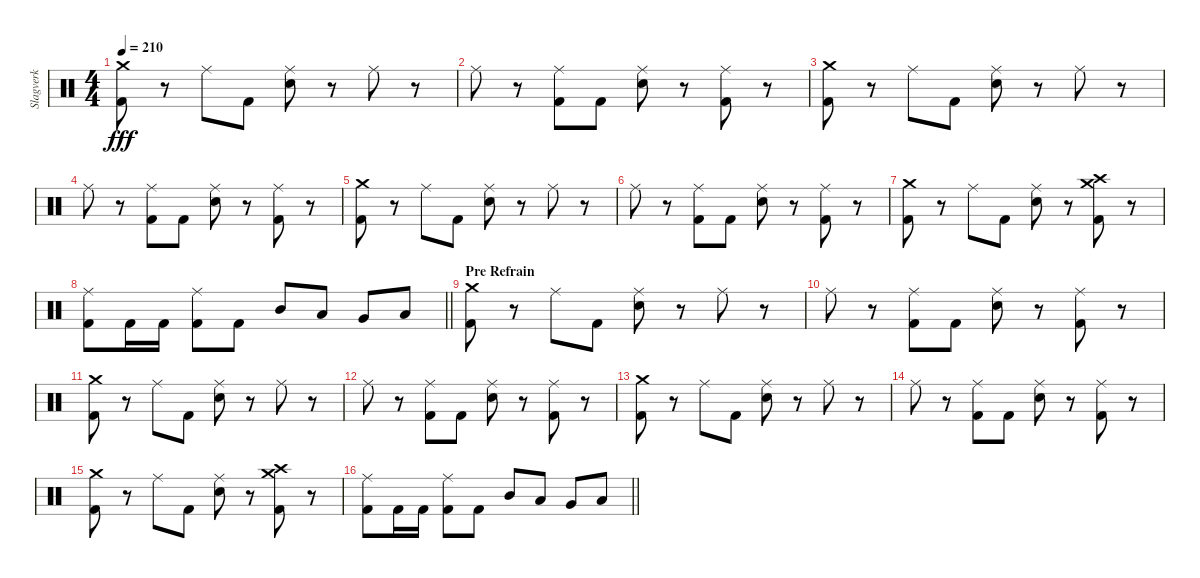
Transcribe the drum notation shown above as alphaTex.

\track ("Slagverk" "Slagverk") {instrument percussion}
\staff {score}
\articulation defaults
\ts (4 4)
\tempo 210
\clef neutral
\ks c
("Crash medium (hit)" "Kick (hit) 2").8{dy fff} r.8 "Ride (middle)".8 "Kick (hit) 2".8 ("Ride (middle)" "Electric Snare (hit)").8 r.8 "Ride (middle)".8 r.8 |
"Ride (middle)".8 r.8 ("Ride (middle)" "Kick (hit) 2").8 "Kick (hit) 2".8 ("Ride (middle)" "Electric Snare (hit)").8 r.8 ("Ride (middle)" "Kick (hit) 2").8 r.8 |
("Crash medium (hit)" "Kick (hit) 2").8 r.8 "Ride (middle)".8 "Kick (hit) 2".8 ("Ride (middle)" "Electric Snare (hit)").8 r.8 "Ride (middle)".8 r.8 |
"Ride (middle)".8 r.8 ("Ride (middle)" "Kick (hit) 2").8 "Kick (hit) 2".8 ("Ride (middle)" "Electric Snare (hit)").8 r.8 ("Ride (middle)" "Kick (hit) 2").8 r.8 |
("Crash medium (hit)" "Kick (hit) 2").8 r.8 "Ride (middle)".8 "Kick (hit) 2".8 ("Ride (middle)" "Electric Snare (hit)").8 r.8 "Ride (middle)".8 r.8 |
"Ride (middle)".8 r.8 ("Ride (middle)" "Kick (hit) 2").8 "Kick (hit) 2".8 ("Ride (middle)" "Electric Snare (hit)").8 r.8 ("Ride (middle)" "Kick (hit) 2").8 r.8 |
("Crash medium (hit)" "Kick (hit) 2").8 r.8 "Ride (middle)".8 "Kick (hit) 2".8 ("Ride (middle)" "Electric Snare (hit)").8 r.8 ("Crash high (hit)" "Crash medium (hit)" "Kick (hit) 2").8 r.8 |
\barLineRight lightlight
("Ride (middle)" "Kick (hit) 2").8 "Kick (hit) 2".16 "Kick (hit) 2".16 ("Ride (middle)" "Kick (hit) 2").8 "Kick (hit) 2".8 "Mid Tom (hit)".8 "Low Tom (hit)".8 "Very Low Tom (hit)".8 "Low Floor Tom (hit)".8 |
\section ("" "Pre Refrain")
("Crash medium (hit)" "Kick (hit) 2").8 r.8 "Ride (middle)".8 "Kick (hit) 2".8 ("Ride (middle)" "Electric Snare (hit)").8 r.8 "Ride (middle)".8 r.8 |
"Ride (middle)".8 r.8 ("Ride (middle)" "Kick (hit) 2").8 "Kick (hit) 2".8 ("Ride (middle)" "Electric Snare (hit)").8 r.8 ("Ride (middle)" "Kick (hit) 2").8 r.8 |
("Crash medium (hit)" "Kick (hit) 2").8 r.8 "Ride (middle)".8 "Kick (hit) 2".8 ("Ride (middle)" "Electric Snare (hit)").8 r.8 "Ride (middle)".8 r.8 |
"Ride (middle)".8 r.8 ("Ride (middle)" "Kick (hit) 2").8 "Kick (hit) 2".8 ("Ride (middle)" "Electric Snare (hit)").8 r.8 ("Ride (middle)" "Kick (hit) 2").8 r.8 |
("Crash medium (hit)" "Kick (hit) 2").8 r.8 "Ride (middle)".8 "Kick (hit) 2".8 ("Ride (middle)" "Electric Snare (hit)").8 r.8 "Ride (middle)".8 r.8 |
"Ride (middle)".8 r.8 ("Ride (middle)" "Kick (hit) 2").8 "Kick (hit) 2".8 ("Ride (middle)" "Electric Snare (hit)").8 r.8 ("Ride (middle)" "Kick (hit) 2").8 r.8 |
("Crash medium (hit)" "Kick (hit) 2").8 r.8 "Ride (middle)".8 "Kick (hit) 2".8 ("Ride (middle)" "Electric Snare (hit)").8 r.8 ("Crash high (hit)" "Crash medium (hit)" "Kick (hit) 2").8 r.8 |
\barLineRight lightlight
("Ride (middle)" "Kick (hit) 2").8 "Kick (hit) 2".16 "Kick (hit) 2".16 ("Ride (middle)" "Kick (hit) 2").8 "Kick (hit) 2".8 "Mid Tom (hit)".8 "Low Tom (hit)".8 "Very Low Tom (hit)".8 "Low Floor Tom (hit)".8
